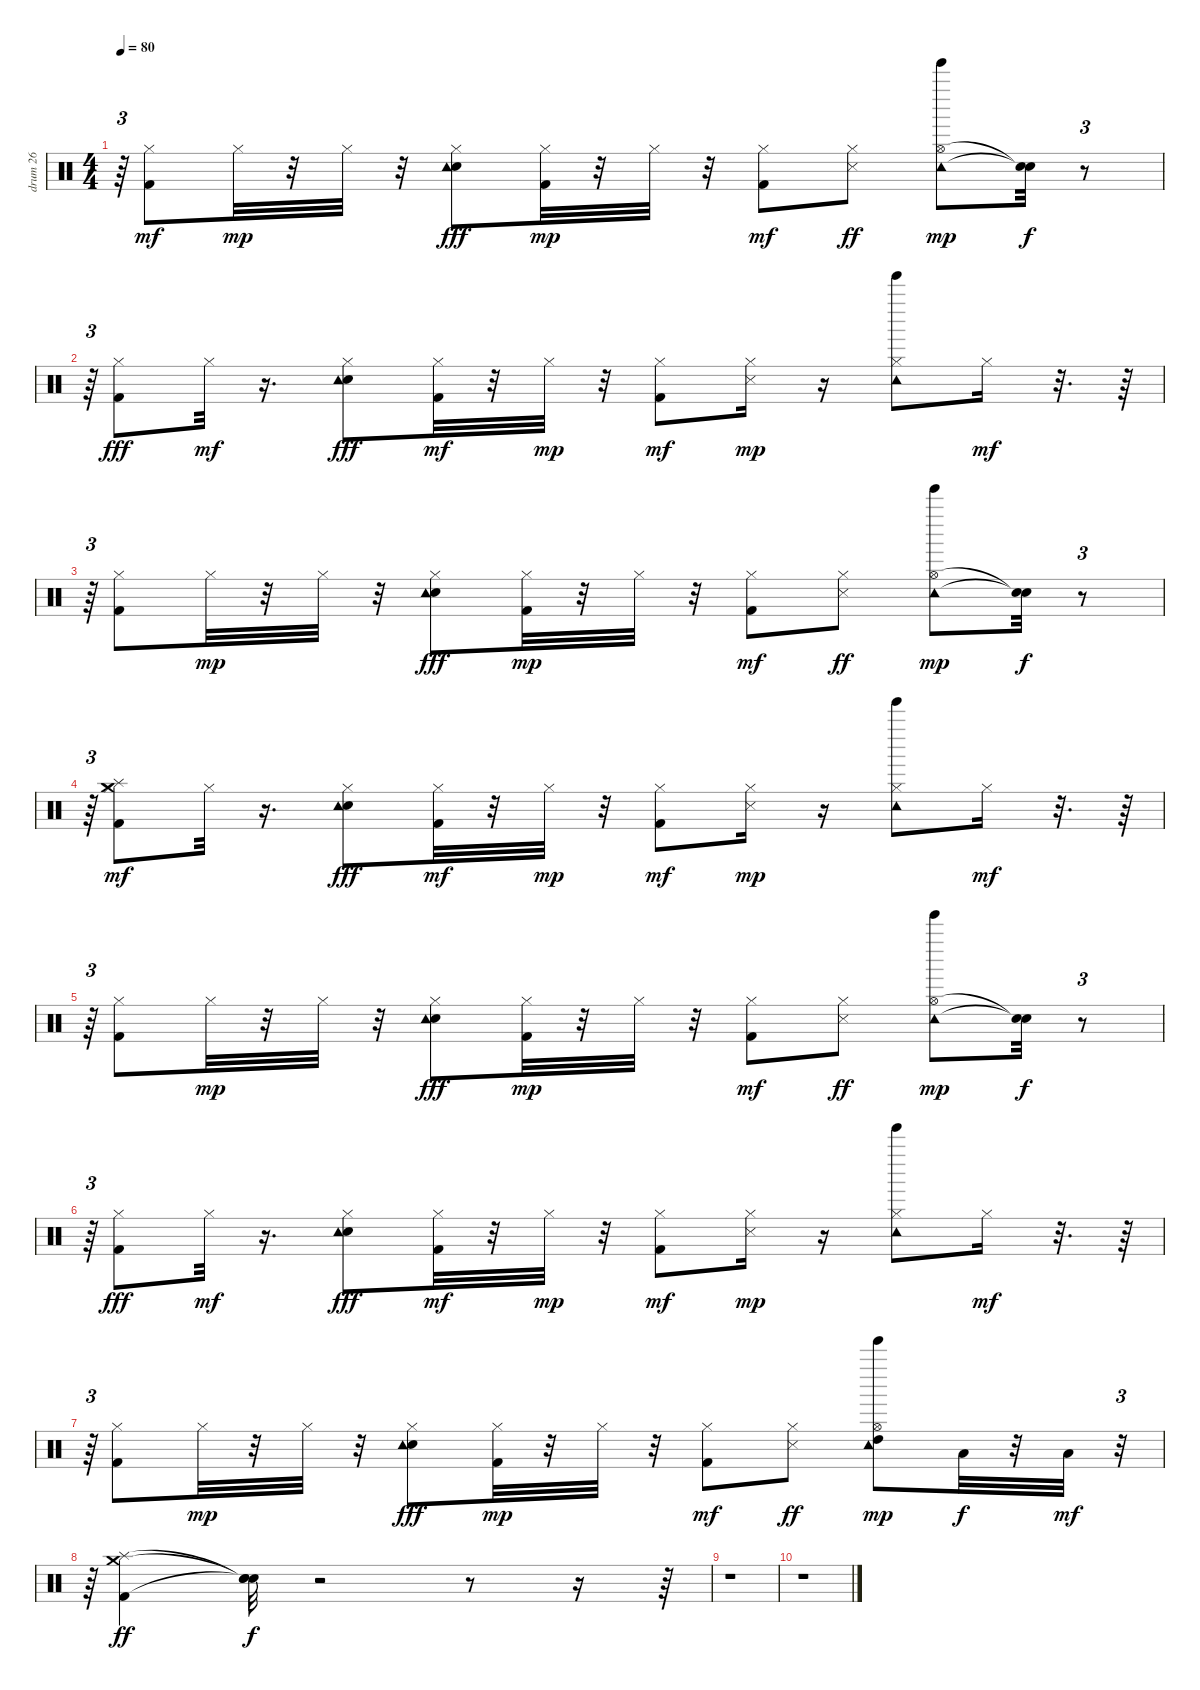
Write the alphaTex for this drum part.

\track ("drum 26" "drum 26") {instrument percussion}
\staff {score}
\articulation defaults
\ts (4 4)
\tempo 80
\clef neutral
\ks c
r.64{tu (3 2) dy mf} ("Kick (hit) 2" "Hi-Hat (closed)").8 "Hi-Hat (closed)".32{dy mp} r.32 "Hi-Hat (closed)".32 r.32 ("Hand Clap (hit)" "Hi-Hat (closed)" "Tambourine (hit)").8{dy fff} ("Kick (hit) 2" "Hi-Hat (closed)").32{dy mp} r.32 "Hi-Hat (closed)".32 r.32 ("Kick (hit) 2" "Hi-Hat (closed)").8{dy mf} ("Snare (side stick) 3" "Hi-Hat (closed)").8{dy ff} ("Hi-Hat (open)" "Tambourine (hit)" "Tinkle Bell (hit)").8{dy mp} ("Snare (hit)"{t} "Snare (hit)"{t}).32{dy f} r.8{tu (3 2)} |
r.64{tu (3 2)} ("Kick (hit) 2" "Hi-Hat (closed)").8{dy fff} "Hi-Hat (closed)".32{dy mf} r.16{d} ("Hand Clap (hit)" "Hi-Hat (closed)" "Tambourine (hit)").8{dy fff} ("Kick (hit) 2" "Hi-Hat (closed)").32{dy mf} r.32 "Hi-Hat (closed)".32{dy mp} r.32 ("Kick (hit) 2" "Hi-Hat (closed)").8{dy mf} ("Snare (side stick) 3" "Hi-Hat (closed)").16{dy mp} r.16 ("Hi-Hat (closed)" "Tambourine (hit)" "Tinkle Bell (hit)").8 "Hi-Hat (closed)".16{dy mf} r.32{d} r.64 |
r.64{tu (3 2)} ("Kick (hit) 2" "Hi-Hat (closed)").8 "Hi-Hat (closed)".32{dy mp} r.32 "Hi-Hat (closed)".32 r.32 ("Hand Clap (hit)" "Hi-Hat (closed)" "Tambourine (hit)").8{dy fff} ("Kick (hit) 2" "Hi-Hat (closed)").32{dy mp} r.32 "Hi-Hat (closed)".32 r.32 ("Kick (hit) 2" "Hi-Hat (closed)").8{dy mf} ("Snare (side stick) 3" "Hi-Hat (closed)").8{dy ff} ("Hi-Hat (open)" "Tambourine (hit)" "Tinkle Bell (hit)").8{dy mp} ("Snare (hit)"{t} "Snare (hit)"{t}).32{dy f} r.8{tu (3 2)} |
r.64{tu (3 2)} ("Kick (hit) 2" "Hi-Hat (closed)" "Splash (hit)" "Crash medium (hit)").8{dy mf} "Hi-Hat (closed)".32 r.16{d} ("Hand Clap (hit)" "Hi-Hat (closed)" "Tambourine (hit)").8{dy fff} ("Kick (hit) 2" "Hi-Hat (closed)").32{dy mf} r.32 "Hi-Hat (closed)".32{dy mp} r.32 ("Kick (hit) 2" "Hi-Hat (closed)").8{dy mf} ("Snare (side stick) 3" "Hi-Hat (closed)").16{dy mp} r.16 ("Hi-Hat (closed)" "Tambourine (hit)" "Tinkle Bell (hit)").8 "Hi-Hat (closed)".16{dy mf} r.32{d} r.64 |
r.64{tu (3 2)} ("Kick (hit) 2" "Hi-Hat (closed)").8 "Hi-Hat (closed)".32{dy mp} r.32 "Hi-Hat (closed)".32 r.32 ("Hand Clap (hit)" "Hi-Hat (closed)" "Tambourine (hit)").8{dy fff} ("Kick (hit) 2" "Hi-Hat (closed)").32{dy mp} r.32 "Hi-Hat (closed)".32 r.32 ("Kick (hit) 2" "Hi-Hat (closed)").8{dy mf} ("Snare (side stick) 3" "Hi-Hat (closed)").8{dy ff} ("Hi-Hat (open)" "Tambourine (hit)" "Tinkle Bell (hit)").8{dy mp} ("Snare (hit)"{t} "Snare (hit)"{t}).32{dy f} r.8{tu (3 2)} |
r.64{tu (3 2)} ("Kick (hit) 2" "Hi-Hat (closed)").8{dy fff} "Hi-Hat (closed)".32{dy mf} r.16{d} ("Hand Clap (hit)" "Hi-Hat (closed)" "Tambourine (hit)").8{dy fff} ("Kick (hit) 2" "Hi-Hat (closed)").32{dy mf} r.32 "Hi-Hat (closed)".32{dy mp} r.32 ("Kick (hit) 2" "Hi-Hat (closed)").8{dy mf} ("Snare (side stick) 3" "Hi-Hat (closed)").16{dy mp} r.16 ("Hi-Hat (closed)" "Tambourine (hit)" "Tinkle Bell (hit)").8 "Hi-Hat (closed)".16{dy mf} r.32{d} r.64 |
r.64{tu (3 2)} ("Kick (hit) 2" "Hi-Hat (closed)").8 "Hi-Hat (closed)".32{dy mp} r.32 "Hi-Hat (closed)".32 r.32 ("Hand Clap (hit)" "Hi-Hat (closed)" "Tambourine (hit)").8{dy fff} ("Kick (hit) 2" "Hi-Hat (closed)").32{dy mp} r.32 "Hi-Hat (closed)".32 r.32 ("Kick (hit) 2" "Hi-Hat (closed)").8{dy mf} ("Snare (side stick) 3" "Hi-Hat (closed)").8{dy ff} ("Hi-Hat (open)" "High Tom (hit)" "Tambourine (hit)" "Tinkle Bell (hit)").8{dy mp} "Low Tom (hit)".32{dy f} r.32 "Low Tom (hit)".32{dy mf} r.32{tu (3 2)} |
r.64{tu (3 2)} ("Kick (hit) 2" "Splash (hit)" "Crash medium (hit)").4{dy ff} ("Snare (hit)"{t} "Snare (hit)"{t} "Snare (hit)"{t}).32{dy f} r.2 r.8 r.16 r.64 |
r.1 |
r.1
